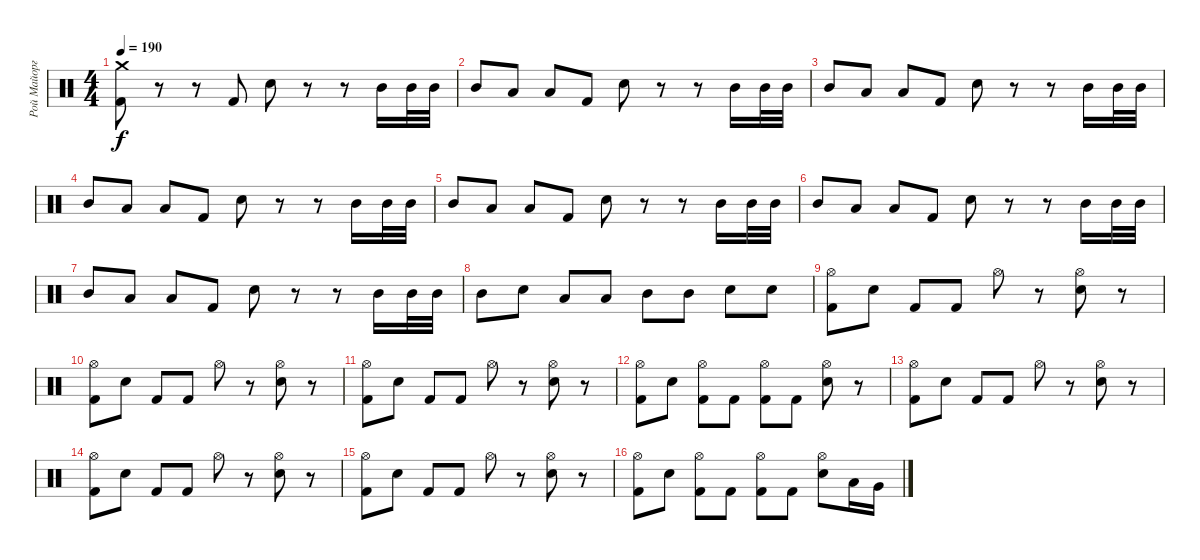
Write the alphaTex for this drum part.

\track ("Рой Майорга" "Рой Майорг") {instrument percussion}
\staff {score}
\articulation defaults
\ts (4 4)
\tempo 190
\clef neutral
\ks c
("Crash medium (hit)" "Kick (hit) 2").8{dy f} r.8 r.8 "Kick (hit) 2".8 "Electric Snare (hit)".8 r.8 r.8 "Mid Tom (hit)".16 "Mid Tom (hit)".32 "Mid Tom (hit)".32 |
"Mid Tom (hit)".8 "Low Tom (hit)".8 "Low Floor Tom (hit)".8 "Kick (hit) 2".8 "Electric Snare (hit)".8 r.8 r.8 "Mid Tom (hit)".16 "Mid Tom (hit)".32 "Mid Tom (hit)".32 |
"Mid Tom (hit)".8 "Low Tom (hit)".8 "Low Floor Tom (hit)".8 "Kick (hit) 2".8 "Electric Snare (hit)".8 r.8 r.8 "Mid Tom (hit)".16 "Mid Tom (hit)".32 "Mid Tom (hit)".32 |
"Mid Tom (hit)".8 "Low Tom (hit)".8 "Low Floor Tom (hit)".8 "Kick (hit) 2".8 "Electric Snare (hit)".8 r.8 r.8 "Mid Tom (hit)".16 "Mid Tom (hit)".32 "Mid Tom (hit)".32 |
"Mid Tom (hit)".8 "Low Tom (hit)".8 "Low Floor Tom (hit)".8 "Kick (hit) 2".8 "Electric Snare (hit)".8 r.8 r.8 "Mid Tom (hit)".16 "Mid Tom (hit)".32 "Mid Tom (hit)".32 |
"Mid Tom (hit)".8 "Low Tom (hit)".8 "Low Floor Tom (hit)".8 "Kick (hit) 2".8 "Electric Snare (hit)".8 r.8 r.8 "Mid Tom (hit)".16 "Mid Tom (hit)".32 "Mid Tom (hit)".32 |
"Mid Tom (hit)".8 "Low Tom (hit)".8 "Low Floor Tom (hit)".8 "Kick (hit) 2".8 "Electric Snare (hit)".8 r.8 r.8 "Mid Tom (hit)".16 "Mid Tom (hit)".32 "Mid Tom (hit)".32 |
"Mid Tom (hit)".8 "Electric Snare (hit)".8 "Low Tom (hit)".8 "Low Floor Tom (hit)".8 "Mid Tom (hit)".8 "Mid Tom (hit)".8 "Electric Snare (hit)".8 "Electric Snare (hit)".8 |
("Hi-Hat (open)" "Kick (hit) 2").8 "Electric Snare (hit)".8 "Kick (hit) 2".8 "Kick (hit) 2".8 "Hi-Hat (open)".8 r.8 ("Hi-Hat (open)" "Electric Snare (hit)").8 r.8 |
("Hi-Hat (open)" "Kick (hit) 2").8 "Electric Snare (hit)".8 "Kick (hit) 2".8 "Kick (hit) 2".8 "Hi-Hat (open)".8 r.8 ("Hi-Hat (open)" "Electric Snare (hit)").8 r.8 |
("Hi-Hat (open)" "Kick (hit) 2").8 "Electric Snare (hit)".8 "Kick (hit) 2".8 "Kick (hit) 2".8 "Hi-Hat (open)".8 r.8 ("Hi-Hat (open)" "Electric Snare (hit)").8 r.8 |
("Hi-Hat (open)" "Kick (hit) 2").8 "Electric Snare (hit)".8 ("Hi-Hat (open)" "Kick (hit) 2").8 "Kick (hit) 2".8 ("Hi-Hat (open)" "Kick (hit) 2").8 "Kick (hit) 2".8 ("Hi-Hat (open)" "Electric Snare (hit)").8 r.8 |
("Hi-Hat (open)" "Kick (hit) 2").8 "Electric Snare (hit)".8 "Kick (hit) 2".8 "Kick (hit) 2".8 "Hi-Hat (open)".8 r.8 ("Hi-Hat (open)" "Electric Snare (hit)").8 r.8 |
("Hi-Hat (open)" "Kick (hit) 2").8 "Electric Snare (hit)".8 "Kick (hit) 2".8 "Kick (hit) 2".8 "Hi-Hat (open)".8 r.8 ("Hi-Hat (open)" "Electric Snare (hit)").8 r.8 |
("Hi-Hat (open)" "Kick (hit) 2").8 "Electric Snare (hit)".8 "Kick (hit) 2".8 "Kick (hit) 2".8 "Hi-Hat (open)".8 r.8 ("Hi-Hat (open)" "Electric Snare (hit)").8 r.8 |
("Hi-Hat (open)" "Kick (hit) 2").8 "Electric Snare (hit)".8 ("Hi-Hat (open)" "Kick (hit) 2").8 "Kick (hit) 2".8 ("Hi-Hat (open)" "Kick (hit) 2").8 "Kick (hit) 2".8 ("Hi-Hat (open)" "Electric Snare (hit)").8 "Low Tom (hit)".16 "Very Low Tom (hit)".16
